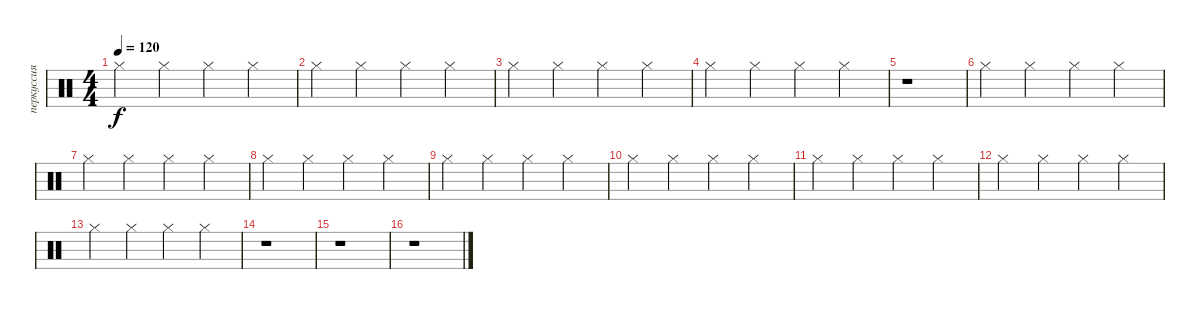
\track ("перкуссия" "перкуссия") {instrument percussion}
\staff {score}
\articulation defaults
\ts (4 4)
\tempo 120
\clef neutral
\ks c "Hi-Hat (closed)".4{dy f} "Hi-Hat (closed)".4 "Hi-Hat (closed)".4 "Hi-Hat (closed)".4
|
"Hi-Hat (closed)".4 "Hi-Hat (closed)".4 "Hi-Hat (closed)".4 "Hi-Hat (closed)".4 |
"Hi-Hat (closed)".4 "Hi-Hat (closed)".4 "Hi-Hat (closed)".4 "Hi-Hat (closed)".4 |
"Hi-Hat (closed)".4 "Hi-Hat (closed)".4 "Hi-Hat (closed)".4 "Hi-Hat (closed)".4 |
r.1 |
"Hi-Hat (closed)".4 "Hi-Hat (closed)".4 "Hi-Hat (closed)".4 "Hi-Hat (closed)".4 |
"Hi-Hat (closed)".4 "Hi-Hat (closed)".4 "Hi-Hat (closed)".4 "Hi-Hat (closed)".4 |
"Hi-Hat (closed)".4 "Hi-Hat (closed)".4 "Hi-Hat (closed)".4 "Hi-Hat (closed)".4 |
"Hi-Hat (closed)".4 "Hi-Hat (closed)".4 "Hi-Hat (closed)".4 "Hi-Hat (closed)".4 |
"Hi-Hat (closed)".4 "Hi-Hat (closed)".4 "Hi-Hat (closed)".4 "Hi-Hat (closed)".4 |
"Hi-Hat (closed)".4 "Hi-Hat (closed)".4 "Hi-Hat (closed)".4 "Hi-Hat (closed)".4 |
"Hi-Hat (closed)".4 "Hi-Hat (closed)".4 "Hi-Hat (closed)".4 "Hi-Hat (closed)".4 |
"Hi-Hat (closed)".4 "Hi-Hat (closed)".4 "Hi-Hat (closed)".4 "Hi-Hat (closed)".4 |
r.1 |
r.1 |
r.1
